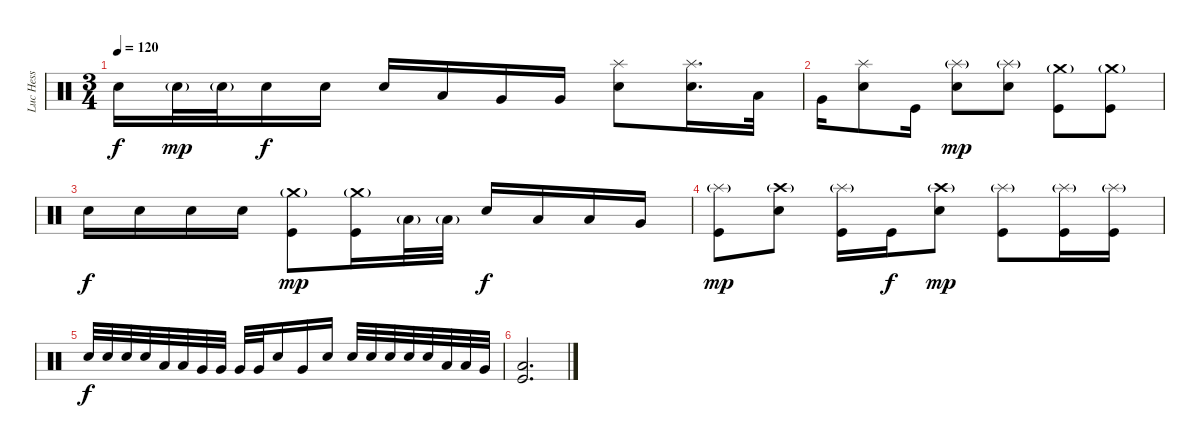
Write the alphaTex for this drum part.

\track ("Luc Hess" "Luc Hess") {instrument percussion}
\staff {score}
\articulation defaults
\ts (3 4)
\tempo 120
\clef neutral
\ks c "Snare (hit) 2".16{dy f} "Snare (hit) 2"{g}.32{dy mp} "Snare (hit) 2"{g}.32 "Snare (hit) 2".16{dy f} "Snare (hit) 2".16 "Snare (hit) 2".16 "Low Tom (hit)".16 "Very Low Tom (hit)".16 "Very Low Tom (hit)".16
("Snare (hit) 2" "Splash (hit)").8 ("Snare (hit) 2" "Splash (hit)").16{d} "Low Tom (hit)".32 |
"Very Low Tom (hit)".16 ("Snare (hit) 2" "Splash (hit)").8 "Kick (hit)".16 ("Snare (hit) 2" "Splash (hit)"{g}).8{dy mp} ("Snare (hit) 2" "Splash (hit)"{g}).8 ("Crash medium (hit)"{g} "Kick (hit)").8 ("Crash medium (hit)"{g} "Kick (hit)").8 |
"Snare (hit) 2".16{dy f} "Snare (hit) 2".16 "Snare (hit) 2".16 "Snare (hit) 2".16 ("Crash medium (hit)"{g} "Kick (hit)").8{dy mp} ("Crash medium (hit)"{g} "Kick (hit)").16 "Low Tom (hit)"{g}.32 "Low Tom (hit)"{g}.32 "Snare (hit) 2".16{dy f} "Low Tom (hit)".16 "Low Tom (hit)".16 "Very Low Tom (hit)".16 |
("Splash (hit)"{g} "Kick (hit)").8{dy mp} ("Snare (hit) 2" "Crash high (hit)"{g}).8 ("Splash (hit)"{g} "Kick (hit)").16 "Kick (hit)".16{dy f} ("Snare (hit) 2" "Crash high (hit)"{g}).8{dy mp} ("Splash (hit)"{g} "Kick (hit)").8 ("Splash (hit)"{g} "Kick (hit)").16 ("Splash (hit)"{g} "Kick (hit)").16 |
"Snare (hit) 2".32{dy f} "Snare (hit) 2".32 "Snare (hit) 2".32 "Snare (hit) 2".32 "Low Tom (hit)".32 "Low Tom (hit)".32 "Very Low Tom (hit)".32 "Very Low Tom (hit)".32 "Very Low Tom (hit)".32 "Very Low Tom (hit)".32 "Snare (hit) 2".16 "Very Low Tom (hit)".16 "Snare (hit) 2".16 "Snare (hit) 2".32 "Snare (hit) 2".32 "Snare (hit) 2".32 "Snare (hit) 2".32 "Snare (hit) 2".32 "Low Tom (hit)".32 "Low Tom (hit)".32 "Very Low Tom (hit)".32 |
("Low Floor Tom (hit)" "Kick (hit)").2{d}
